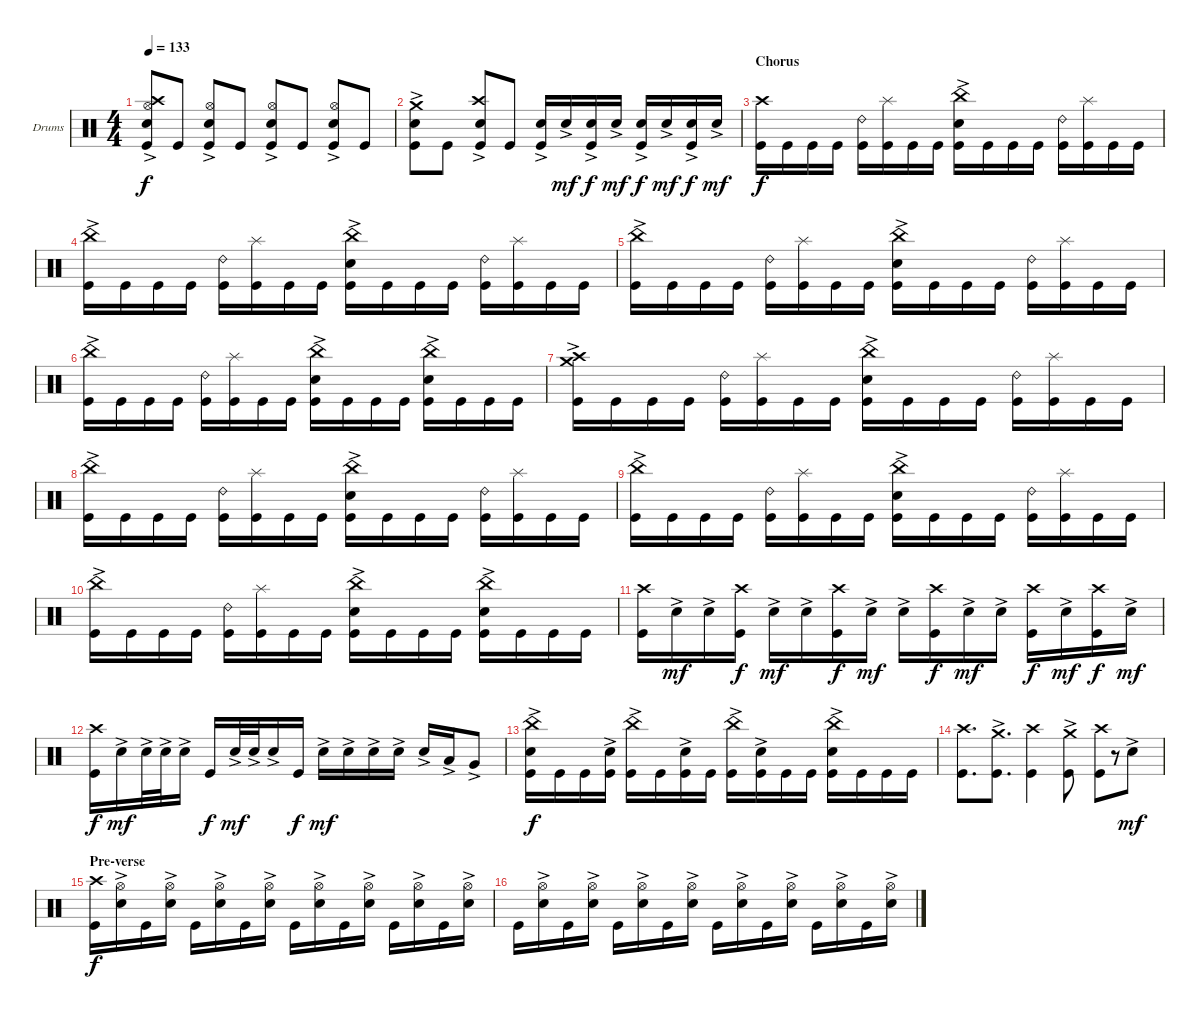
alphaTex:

\bracketExtendMode groupsimilarinstruments
\firstSystemTrackNameOrientation horizontal
\otherSystemsTrackNameOrientation horizontal
\track ("Drumkit" "Drums") {instrument percussion}
\staff {score}
\articulation defaults
\ts (4 4)
\tempo 133
\clef neutral
\ks c
("Snare (hit) 2"{ac} "Hi-Hat (open)" "Crash high (hit)" "Kick (hit)").8{dy f} "Kick (hit)".8 ("Snare (hit) 2"{ac} "Hi-Hat (open)" "Kick (hit)").8 "Kick (hit)".8 ("Snare (hit) 2"{ac} "Hi-Hat (open)" "Kick (hit)").8 "Kick (hit)".8 ("Snare (hit) 2"{ac} "Hi-Hat (open)" "Kick (hit)").8 "Kick (hit)".8 |
("Kick (hit)" "Snare (hit) 2"{ac} "Crash medium (hit)").8 "Kick (hit)".8 ("Kick (hit)" "Snare (hit) 2"{ac} "Crash high (hit)").8 "Kick (hit)".8 ("Kick (hit)" "Snare (hit) 2"{ac}).16 "Snare (hit) 2"{ac}.16{dy mf} ("Snare (hit) 2"{ac} "Kick (hit)").16{dy f} "Snare (hit) 2"{ac}.16{dy mf} ("Snare (hit) 2"{ac} "Kick (hit)").16{dy f} "Snare (hit) 2"{ac}.16{dy mf} ("Snare (hit) 2"{ac} "Kick (hit)").16{dy f} "Snare (hit) 2"{ac}.16{dy mf} |
\section ("" "Chorus")
("Kick (hit)" "Crash high (hit)").16{dy f} "Kick (hit)".16 "Kick (hit)".16 "Kick (hit)".16 ("Kick (hit)" "Ride (bell) 2").16 ("Kick (hit)" "Splash (hit)").16 "Kick (hit)".16 "Kick (hit)".16 ("Kick (hit)" "Snare (hit) 2"{ac} "China (hit)"{ac}).16 "Kick (hit)".16 "Kick (hit)".16 "Kick (hit)".16 ("Kick (hit)" "Ride (bell) 2").16 ("Kick (hit)" "Splash (hit)").16 "Kick (hit)".16 "Kick (hit)".16 |
("Kick (hit)" "China (hit)"{ac}).16 "Kick (hit)".16 "Kick (hit)".16 "Kick (hit)".16 ("Kick (hit)" "Ride (bell) 2").16 ("Kick (hit)" "Splash (hit)").16 "Kick (hit)".16 "Kick (hit)".16 ("Kick (hit)" "Snare (hit) 2"{ac} "China (hit)"{ac}).16 "Kick (hit)".16 "Kick (hit)".16 "Kick (hit)".16 ("Kick (hit)" "Ride (bell) 2").16 ("Kick (hit)" "Splash (hit)").16 "Kick (hit)".16 "Kick (hit)".16 |
("Kick (hit)" "China (hit)"{ac}).16 "Kick (hit)".16 "Kick (hit)".16 "Kick (hit)".16 ("Kick (hit)" "Ride (bell) 2").16 ("Kick (hit)" "Splash (hit)").16 "Kick (hit)".16 "Kick (hit)".16 ("Kick (hit)" "Snare (hit) 2"{ac} "China (hit)"{ac}).16 "Kick (hit)".16 "Kick (hit)".16 "Kick (hit)".16 ("Kick (hit)" "Ride (bell) 2").16 ("Kick (hit)" "Splash (hit)").16 "Kick (hit)".16 "Kick (hit)".16 |
("Kick (hit)" "China (hit)"{ac}).16 "Kick (hit)".16 "Kick (hit)".16 "Kick (hit)".16 ("Kick (hit)" "Ride (bell) 2").16 ("Kick (hit)" "Splash (hit)").16 "Kick (hit)".16 "Kick (hit)".16 ("Kick (hit)" "Snare (hit) 2"{ac} "China (hit)"{ac}).16 "Kick (hit)".16 "Kick (hit)".16 "Kick (hit)".16 ("Kick (hit)" "Snare (hit) 2"{ac} "China (hit)"{ac}).16 "Kick (hit)".16 "Kick (hit)".16 "Kick (hit)".16 |
("Kick (hit)" "Crash high (hit)" "Crash medium (hit)"{ac}).16 "Kick (hit)".16 "Kick (hit)".16 "Kick (hit)".16 ("Kick (hit)" "Ride (bell) 2").16 ("Kick (hit)" "Splash (hit)").16 "Kick (hit)".16 "Kick (hit)".16 ("Kick (hit)" "Snare (hit) 2"{ac} "China (hit)"{ac}).16 "Kick (hit)".16 "Kick (hit)".16 "Kick (hit)".16 ("Kick (hit)" "Ride (bell) 2").16 ("Kick (hit)" "Splash (hit)").16 "Kick (hit)".16 "Kick (hit)".16 |
("Kick (hit)" "China (hit)"{ac}).16 "Kick (hit)".16 "Kick (hit)".16 "Kick (hit)".16 ("Kick (hit)" "Ride (bell) 2").16 ("Kick (hit)" "Splash (hit)").16 "Kick (hit)".16 "Kick (hit)".16 ("Kick (hit)" "Snare (hit) 2"{ac} "China (hit)"{ac}).16 "Kick (hit)".16 "Kick (hit)".16 "Kick (hit)".16 ("Kick (hit)" "Ride (bell) 2").16 ("Kick (hit)" "Splash (hit)").16 "Kick (hit)".16 "Kick (hit)".16 |
("Kick (hit)" "China (hit)"{ac}).16 "Kick (hit)".16 "Kick (hit)".16 "Kick (hit)".16 ("Kick (hit)" "Ride (bell) 2").16 ("Kick (hit)" "Splash (hit)").16 "Kick (hit)".16 "Kick (hit)".16 ("Kick (hit)" "Snare (hit) 2"{ac} "China (hit)"{ac}).16 "Kick (hit)".16 "Kick (hit)".16 "Kick (hit)".16 ("Kick (hit)" "Ride (bell) 2").16 ("Kick (hit)" "Splash (hit)").16 "Kick (hit)".16 "Kick (hit)".16 |
("Kick (hit)" "China (hit)"{ac}).16 "Kick (hit)".16 "Kick (hit)".16 "Kick (hit)".16 ("Kick (hit)" "Ride (bell) 2").16 ("Kick (hit)" "Splash (hit)").16 "Kick (hit)".16 "Kick (hit)".16 ("Kick (hit)" "Snare (hit) 2"{ac} "China (hit)"{ac}).16 "Kick (hit)".16 "Kick (hit)".16 "Kick (hit)".16 ("Kick (hit)" "Snare (hit) 2"{ac} "China (hit)"{ac}).16 "Kick (hit)".16 "Kick (hit)".16 "Kick (hit)".16 |
("Kick (hit)" "Crash high (hit)").16 "Snare (hit) 2"{ac}.16{dy mf} "Snare (hit) 2"{ac}.16 ("Kick (hit)" "Crash high (hit)").16{dy f} "Snare (hit) 2"{ac}.16{dy mf} "Snare (hit) 2"{ac}.16 ("Kick (hit)" "Crash high (hit)").16{dy f} "Snare (hit) 2"{ac}.16{dy mf} "Snare (hit) 2"{ac}.16 ("Kick (hit)" "Crash high (hit)").16{dy f} "Snare (hit) 2"{ac}.16{dy mf} "Snare (hit) 2"{ac}.16 ("Kick (hit)" "Crash high (hit)").16{dy f} "Snare (hit) 2"{ac}.16{dy mf} ("Kick (hit)" "Crash high (hit)").16{dy f} "Snare (hit) 2"{ac}.16{dy mf} |
("Kick (hit)" "Crash high (hit)").16{dy f} "Snare (hit) 2"{ac}.16{dy mf} "Snare (hit) 2"{ac}.32 "Snare (hit) 2"{ac}.32 "Snare (hit) 2"{ac}.16 "Kick (hit)".16{dy f} "Snare (hit) 2"{ac}.32{dy mf} "Snare (hit) 2"{ac}.32 "Snare (hit) 2"{ac}.16 "Kick (hit)".16{dy f} "Snare (hit) 2"{ac}.16{dy mf} "Snare (hit) 2"{ac}.16 "Snare (hit) 2"{ac}.16 "Snare (hit) 2"{ac}.16 "Snare (hit) 2"{ac}.16 "Low Tom (hit)"{ac}.16 "Very Low Tom (hit)"{ac}.8 |
("Kick (hit)" "China (hit)"{ac} "Snare (hit) 2"{ac}).16{dy f} "Kick (hit)".16 "Kick (hit)".16 ("Kick (hit)" "Snare (hit) 2"{ac}).16 ("Kick (hit)" "China (hit)"{ac}).16 "Kick (hit)".16 ("Kick (hit)" "Snare (hit) 2"{ac}).16 "Kick (hit)".16 ("Kick (hit)" "China (hit)"{ac}).16 ("Kick (hit)" "Snare (hit) 2"{ac}).16 "Kick (hit)".16 "Kick (hit)".16 ("Kick (hit)" "China (hit)"{ac} "Snare (hit) 2"{ac}).16 "Kick (hit)".16 "Kick (hit)".16 "Kick (hit)".16 |
("Kick (hit)" "Crash high (hit)").8{d} ("Kick (hit)" "Crash medium (hit)"{ac}).8{d} ("Kick (hit)" "Crash high (hit)").4 ("Kick (hit)" "Crash medium (hit)"{ac}).8 ("Kick (hit)" "Crash high (hit)").8 r.8{gr} "Snare (hit) 2"{ac}.8{dy mf} |
\section ("" "Pre-verse")
("Kick (hit)" "Crash high (hit)").16{dy f} ("Snare (hit) 2"{ac} "Hi-Hat (open)").16 "Kick (hit)".16 ("Snare (hit) 2"{ac} "Hi-Hat (open)").16 "Kick (hit)".16 ("Snare (hit) 2"{ac} "Hi-Hat (open)").16 "Kick (hit)".16 ("Snare (hit) 2"{ac} "Hi-Hat (open)").16 "Kick (hit)".16 ("Snare (hit) 2"{ac} "Hi-Hat (open)").16 "Kick (hit)".16 ("Snare (hit) 2"{ac} "Hi-Hat (open)").16 "Kick (hit)".16 ("Snare (hit) 2"{ac} "Hi-Hat (open)").16 "Kick (hit)".16 ("Snare (hit) 2"{ac} "Hi-Hat (open)").16 |
"Kick (hit)".16 ("Snare (hit) 2"{ac} "Hi-Hat (open)").16 "Kick (hit)".16 ("Snare (hit) 2"{ac} "Hi-Hat (open)").16 "Kick (hit)".16 ("Snare (hit) 2"{ac} "Hi-Hat (open)").16 "Kick (hit)".16 ("Snare (hit) 2"{ac} "Hi-Hat (open)").16 "Kick (hit)".16 ("Snare (hit) 2"{ac} "Hi-Hat (open)").16 "Kick (hit)".16 ("Snare (hit) 2"{ac} "Hi-Hat (open)").16 "Kick (hit)".16 ("Snare (hit) 2"{ac} "Hi-Hat (open)").16 "Kick (hit)".16 ("Snare (hit) 2"{ac} "Hi-Hat (open)").16
